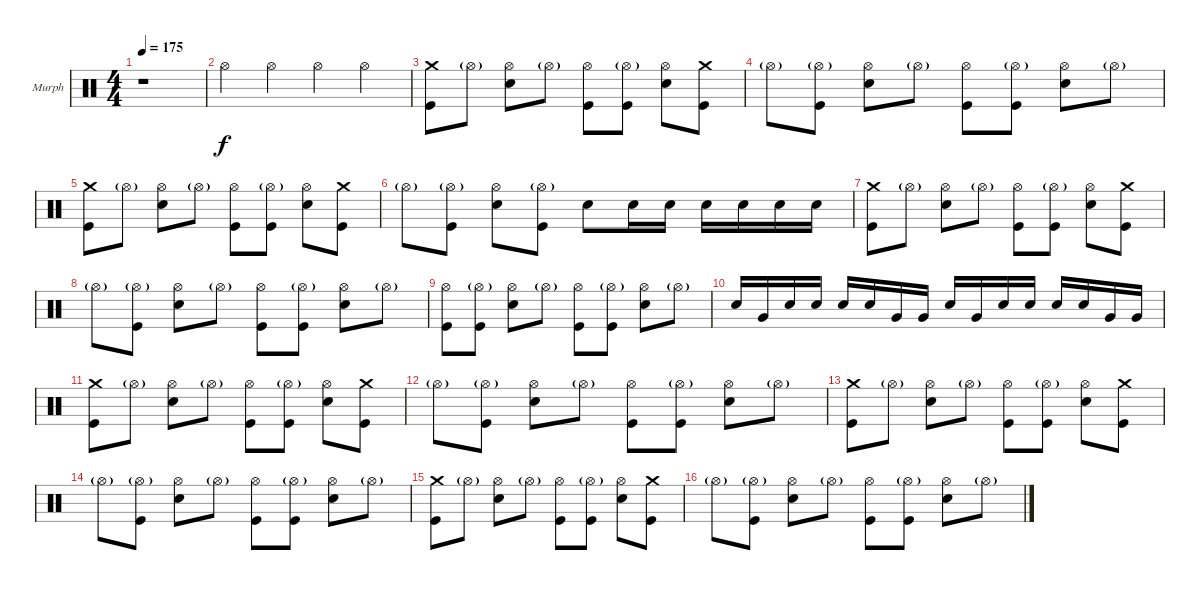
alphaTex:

\defaultSystemsLayout 4
\bracketExtendMode groupsimilarinstruments
\firstSystemTrackNameOrientation horizontal
\otherSystemsTrackNameOrientation horizontal
\track ("Murph" "Murph") {instrument percussion}
\staff {score}
\articulation defaults
\ts (4 4)
\tempo 175
\clef neutral
\scale
0.474178
\ks c
r.1{dy f} |
\scale
0.262911 "Hi-Hat (open)".4 "Hi-Hat (open)".4 "Hi-Hat (open)".4 "Hi-Hat (open)".4 |
\scale
0.262911 ("Kick (hit)" "Crash medium (hit)").8 "Hi-Hat (open)"{g}.8 ("Snare (hit) 2" "Hi-Hat (open)").8 "Hi-Hat (open)"{g}.8 ("Kick (hit)" "Hi-Hat (open)").8 ("Kick (hit)" "Hi-Hat (open)"{g}).8 ("Snare (hit) 2" "Hi-Hat (open)").8 ("Kick (hit)" "Crash medium (hit)").8 |
\scale
0.333333 "Hi-Hat (open)"{g}.8 ("Kick (hit)" "Hi-Hat (open)"{g}).8 ("Snare (hit) 2" "Hi-Hat (open)").8 "Hi-Hat (open)"{g}.8 ("Kick (hit)" "Hi-Hat (open)").8 ("Kick (hit)" "Hi-Hat (open)"{g}).8 ("Snare (hit) 2" "Hi-Hat (open)").8 "Hi-Hat (open)"{g}.8 |
\scale
0.333333 ("Kick (hit)" "Crash medium (hit)").8 "Hi-Hat (open)"{g}.8 ("Snare (hit) 2" "Hi-Hat (open)").8 "Hi-Hat (open)"{g}.8 ("Kick (hit)" "Hi-Hat (open)").8 ("Kick (hit)" "Hi-Hat (open)"{g}).8 ("Snare (hit) 2" "Hi-Hat (open)").8 ("Kick (hit)" "Crash medium (hit)").8 |
\scale
0.333333 "Hi-Hat (open)"{g}.8 ("Kick (hit)" "Hi-Hat (open)"{g}).8 ("Snare (hit) 2" "Hi-Hat (open)").8 ("Kick (hit)" "Hi-Hat (open)"{g}).8 "Snare (hit) 2".8 "Snare (hit) 2".16 "Snare (hit) 2".16 "Snare (hit) 2".16 "Snare (hit) 2".16 "Snare (hit) 2".16 "Snare (hit) 2".16 |
\scale
0.333333 ("Kick (hit)" "Crash medium (hit)").8 "Hi-Hat (open)"{g}.8 ("Snare (hit) 2" "Hi-Hat (open)").8 "Hi-Hat (open)"{g}.8 ("Kick (hit)" "Hi-Hat (open)").8 ("Kick (hit)" "Hi-Hat (open)"{g}).8 ("Snare (hit) 2" "Hi-Hat (open)").8 ("Kick (hit)" "Crash medium (hit)").8 |
\scale
0.333333 "Hi-Hat (open)"{g}.8 ("Kick (hit)" "Hi-Hat (open)"{g}).8 ("Snare (hit) 2" "Hi-Hat (open)").8 "Hi-Hat (open)"{g}.8 ("Kick (hit)" "Hi-Hat (open)").8 ("Kick (hit)" "Hi-Hat (open)"{g}).8 ("Snare (hit) 2" "Hi-Hat (open)").8 "Hi-Hat (open)"{g}.8 |
\scale
0.333333 ("Kick (hit)" "Hi-Hat (open)").8 ("Kick (hit)" "Hi-Hat (open)"{g}).8 ("Snare (hit) 2" "Hi-Hat (open)").8 "Hi-Hat (open)"{g}.8 ("Kick (hit)" "Hi-Hat (open)").8 ("Kick (hit)" "Hi-Hat (open)"{g}).8 ("Snare (hit) 2" "Hi-Hat (open)").8 "Hi-Hat (open)"{g}.8 |
\scale
0.333333 "Snare (hit) 2".16 "Very Low Tom (hit)".16 "Snare (hit) 2".16 "Snare (hit) 2".16 "Snare (hit) 2".16 "Snare (hit) 2".16 "Very Low Tom (hit)".16 "Very Low Tom (hit)".16 "Snare (hit) 2".16 "Very Low Tom (hit)".16 "Snare (hit) 2".16 "Snare (hit) 2".16 "Snare (hit) 2".16 "Snare (hit) 2".16 "Very Low Tom (hit)".16 "Very Low Tom (hit)".16 |
\scale
0.333333 ("Kick (hit)" "Crash medium (hit)").8 "Hi-Hat (open)"{g}.8 ("Snare (hit) 2" "Hi-Hat (open)").8 "Hi-Hat (open)"{g}.8 ("Kick (hit)" "Hi-Hat (open)").8 ("Kick (hit)" "Hi-Hat (open)"{g}).8 ("Snare (hit) 2" "Hi-Hat (open)").8 ("Kick (hit)" "Crash medium (hit)").8 |
\scale
0.333333 "Hi-Hat (open)"{g}.8 ("Kick (hit)" "Hi-Hat (open)"{g}).8 ("Snare (hit) 2" "Hi-Hat (open)").8 "Hi-Hat (open)"{g}.8 ("Kick (hit)" "Hi-Hat (open)").8 ("Kick (hit)" "Hi-Hat (open)"{g}).8 ("Snare (hit) 2" "Hi-Hat (open)").8 "Hi-Hat (open)"{g}.8 |
\scale
0.333333 ("Kick (hit)" "Crash medium (hit)").8 "Hi-Hat (open)"{g}.8 ("Snare (hit) 2" "Hi-Hat (open)").8 "Hi-Hat (open)"{g}.8 ("Kick (hit)" "Hi-Hat (open)").8 ("Kick (hit)" "Hi-Hat (open)"{g}).8 ("Snare (hit) 2" "Hi-Hat (open)").8 ("Kick (hit)" "Crash medium (hit)").8 |
\scale
0.333333 "Hi-Hat (open)"{g}.8 ("Kick (hit)" "Hi-Hat (open)"{g}).8 ("Snare (hit) 2" "Hi-Hat (open)").8 "Hi-Hat (open)"{g}.8 ("Kick (hit)" "Hi-Hat (open)").8 ("Kick (hit)" "Hi-Hat (open)"{g}).8 ("Snare (hit) 2" "Hi-Hat (open)").8 "Hi-Hat (open)"{g}.8 |
\scale
0.333333 ("Kick (hit)" "Crash medium (hit)").8 "Hi-Hat (open)"{g}.8 ("Snare (hit) 2" "Hi-Hat (open)").8 "Hi-Hat (open)"{g}.8 ("Kick (hit)" "Hi-Hat (open)").8 ("Kick (hit)" "Hi-Hat (open)"{g}).8 ("Snare (hit) 2" "Hi-Hat (open)").8 ("Kick (hit)" "Crash medium (hit)").8 |
\scale
0.333333 "Hi-Hat (open)"{g}.8 ("Kick (hit)" "Hi-Hat (open)"{g}).8 ("Snare (hit) 2" "Hi-Hat (open)").8 "Hi-Hat (open)"{g}.8 ("Kick (hit)" "Hi-Hat (open)").8 ("Kick (hit)" "Hi-Hat (open)"{g}).8 ("Snare (hit) 2" "Hi-Hat (open)").8 "Hi-Hat (open)"{g}.8
